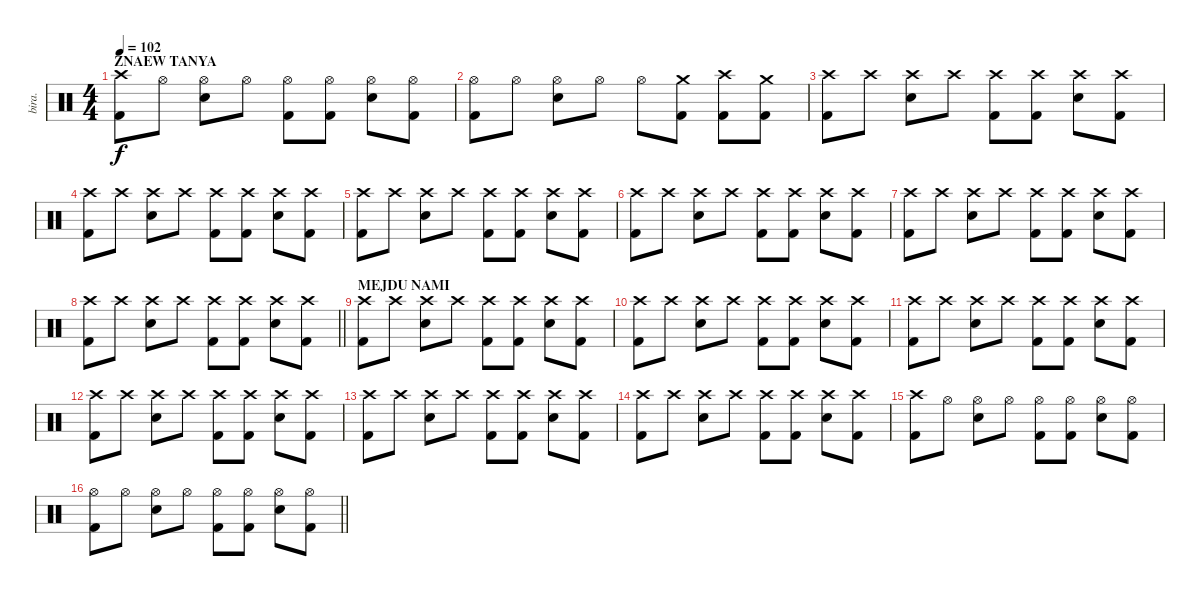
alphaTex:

\track ("bira." "bira.") {instrument percussion}
\staff {score}
\articulation defaults
\ts (4 4)
\section ("" "ZNAEW TANYA")
\tempo 102
\clef neutral
\ks c
("Crash high (hit)" "Kick (hit) 2").8{dy f} "Hi-Hat (open)".8 ("Hi-Hat (open)" "Electric Snare (hit)").8 "Hi-Hat (open)".8 ("Hi-Hat (open)" "Kick (hit) 2").8 ("Hi-Hat (open)" "Kick (hit) 2").8 ("Hi-Hat (open)" "Electric Snare (hit)").8 ("Hi-Hat (open)" "Kick (hit) 2").8 |
("Hi-Hat (open)" "Kick (hit) 2").8 "Hi-Hat (open)".8 ("Hi-Hat (open)" "Electric Snare (hit)").8 "Hi-Hat (open)".8 "Hi-Hat (open)".8 ("Crash medium (hit)" "Kick (hit) 2").8 ("Crash high (hit)" "Kick (hit) 2").8 ("Crash medium (hit)" "Kick (hit) 2").8 |
("Crash high (hit)" "Kick (hit) 2").8 "Crash high (hit)".8 ("Crash high (hit)" "Electric Snare (hit)").8 "Crash high (hit)".8 ("Crash high (hit)" "Kick (hit) 2").8 ("Crash high (hit)" "Kick (hit) 2").8 ("Crash high (hit)" "Electric Snare (hit)").8 ("Crash high (hit)" "Kick (hit) 2").8 |
("Crash high (hit)" "Kick (hit) 2").8 "Crash high (hit)".8 ("Crash high (hit)" "Electric Snare (hit)").8 "Crash high (hit)".8 ("Crash high (hit)" "Kick (hit) 2").8 ("Crash high (hit)" "Kick (hit) 2").8 ("Crash high (hit)" "Electric Snare (hit)").8 ("Crash high (hit)" "Kick (hit) 2").8 |
("Crash high (hit)" "Kick (hit) 2").8 "Crash high (hit)".8 ("Crash high (hit)" "Electric Snare (hit)").8 "Crash high (hit)".8 ("Crash high (hit)" "Kick (hit) 2").8 ("Crash high (hit)" "Kick (hit) 2").8 ("Crash high (hit)" "Electric Snare (hit)").8 ("Crash high (hit)" "Kick (hit) 2").8 |
("Crash high (hit)" "Kick (hit) 2").8 "Crash high (hit)".8 ("Crash high (hit)" "Electric Snare (hit)").8 "Crash high (hit)".8 ("Crash high (hit)" "Kick (hit) 2").8 ("Crash high (hit)" "Kick (hit) 2").8 ("Crash high (hit)" "Electric Snare (hit)").8 ("Crash high (hit)" "Kick (hit) 2").8 |
("Crash high (hit)" "Kick (hit) 2").8 "Crash high (hit)".8 ("Crash high (hit)" "Electric Snare (hit)").8 "Crash high (hit)".8 ("Crash high (hit)" "Kick (hit) 2").8 ("Crash high (hit)" "Kick (hit) 2").8 ("Crash high (hit)" "Electric Snare (hit)").8 ("Crash high (hit)" "Kick (hit) 2").8 |
\barLineRight lightlight
("Crash high (hit)" "Kick (hit) 2").8 "Crash high (hit)".8 ("Crash high (hit)" "Electric Snare (hit)").8 "Crash high (hit)".8 ("Crash high (hit)" "Kick (hit) 2").8 ("Crash high (hit)" "Kick (hit) 2").8 ("Crash high (hit)" "Electric Snare (hit)").8 ("Crash high (hit)" "Kick (hit) 2").8 |
\section ("" "MEJDU NAMI")
("Crash high (hit)" "Kick (hit) 2").8 "Crash high (hit)".8 ("Crash high (hit)" "Electric Snare (hit)").8 "Crash high (hit)".8 ("Crash high (hit)" "Kick (hit) 2").8 ("Crash high (hit)" "Kick (hit) 2").8 ("Crash high (hit)" "Electric Snare (hit)").8 ("Crash high (hit)" "Kick (hit) 2").8 |
("Crash high (hit)" "Kick (hit) 2").8 "Crash high (hit)".8 ("Crash high (hit)" "Electric Snare (hit)").8 "Crash high (hit)".8 ("Crash high (hit)" "Kick (hit) 2").8 ("Crash high (hit)" "Kick (hit) 2").8 ("Crash high (hit)" "Electric Snare (hit)").8 ("Crash high (hit)" "Kick (hit) 2").8 |
("Crash high (hit)" "Kick (hit) 2").8 "Crash high (hit)".8 ("Crash high (hit)" "Electric Snare (hit)").8 "Crash high (hit)".8 ("Crash high (hit)" "Kick (hit) 2").8 ("Crash high (hit)" "Kick (hit) 2").8 ("Crash high (hit)" "Electric Snare (hit)").8 ("Crash high (hit)" "Kick (hit) 2").8 |
("Crash high (hit)" "Kick (hit) 2").8 "Crash high (hit)".8 ("Crash high (hit)" "Electric Snare (hit)").8 "Crash high (hit)".8 ("Crash high (hit)" "Kick (hit) 2").8 ("Crash high (hit)" "Kick (hit) 2").8 ("Crash high (hit)" "Electric Snare (hit)").8 ("Crash high (hit)" "Kick (hit) 2").8 |
("Crash high (hit)" "Kick (hit) 2").8 "Crash high (hit)".8 ("Crash high (hit)" "Electric Snare (hit)").8 "Crash high (hit)".8 ("Crash high (hit)" "Kick (hit) 2").8 ("Crash high (hit)" "Kick (hit) 2").8 ("Crash high (hit)" "Electric Snare (hit)").8 ("Crash high (hit)" "Kick (hit) 2").8 |
("Crash high (hit)" "Kick (hit) 2").8 "Crash high (hit)".8 ("Crash high (hit)" "Electric Snare (hit)").8 "Crash high (hit)".8 ("Crash high (hit)" "Kick (hit) 2").8 ("Crash high (hit)" "Kick (hit) 2").8 ("Crash high (hit)" "Electric Snare (hit)").8 ("Crash high (hit)" "Kick (hit) 2").8 |
("Crash high (hit)" "Kick (hit) 2").8 "Hi-Hat (open)".8 ("Hi-Hat (open)" "Electric Snare (hit)").8 "Hi-Hat (open)".8 ("Hi-Hat (open)" "Kick (hit) 2").8 ("Hi-Hat (open)" "Kick (hit) 2").8 ("Hi-Hat (open)" "Electric Snare (hit)").8 ("Hi-Hat (open)" "Kick (hit) 2").8 |
\barLineRight lightlight
("Hi-Hat (open)" "Kick (hit) 2").8 "Hi-Hat (open)".8 ("Hi-Hat (open)" "Electric Snare (hit)").8 "Hi-Hat (open)".8 ("Hi-Hat (open)" "Kick (hit) 2").8 ("Hi-Hat (open)" "Kick (hit) 2").8 ("Hi-Hat (open)" "Electric Snare (hit)").8 ("Hi-Hat (open)" "Kick (hit) 2").8
